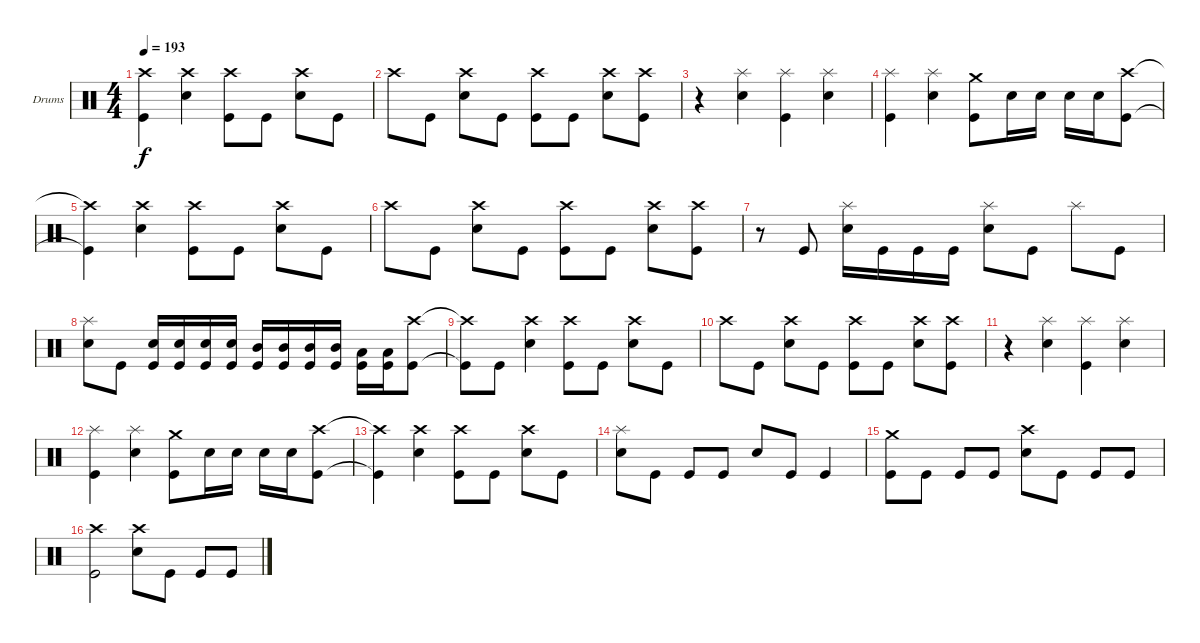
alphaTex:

\bracketExtendMode groupsimilarinstruments
\firstSystemTrackNameOrientation horizontal
\otherSystemsTrackNameOrientation horizontal
\track ("Drumkit" "Drums") {instrument percussion}
\staff {score}
\articulation defaults
\ts (4 4)
\tempo 193
\clef neutral
\ks c
("Crash high (hit)" "Kick (hit)").4{dy f} ("Crash high (hit)" "Snare (hit) 2").4 ("Crash high (hit)" "Kick (hit)").8 "Kick (hit)".8 ("Crash high (hit)" "Snare (hit) 2").8 "Kick (hit)".8 |
"Crash high (hit)".8 "Kick (hit)".8 ("Crash high (hit)" "Snare (hit) 2").8 "Kick (hit)".8 ("Crash high (hit)" "Kick (hit)").8 "Kick (hit)".8 ("Crash high (hit)" "Snare (hit) 2").8 ("Crash high (hit)" "Kick (hit)").8 |
r.4 ("Splash (hit)" "Snare (hit) 2").4 ("Splash (hit)" "Kick (hit)").4 ("Splash (hit)" "Snare (hit) 2").4 |
("Splash (hit)" "Kick (hit)").4 ("Splash (hit)" "Snare (hit) 2").4 ("Crash medium (hit)" "Kick (hit)").8 "Snare (hit) 2".16 "Snare (hit) 2".16 "Snare (hit) 2".16 "Snare (hit) 2".16 ("Crash high (hit)" "Kick (hit)").8 |
("Crash high (hit)"{t} "Kick (hit)"{t}).4 ("Crash high (hit)" "Snare (hit) 2").4 ("Crash high (hit)" "Kick (hit)").8 "Kick (hit)".8 ("Crash high (hit)" "Snare (hit) 2").8 "Kick (hit)".8 |
"Crash high (hit)".8 "Kick (hit)".8 ("Crash high (hit)" "Snare (hit) 2").8 "Kick (hit)".8 ("Crash high (hit)" "Kick (hit)").8 "Kick (hit)".8 ("Crash high (hit)" "Snare (hit) 2").8 ("Crash high (hit)" "Kick (hit)").8 |
r.8 "Kick (hit)".8 ("Splash (hit)" "Snare (hit) 2").16 "Kick (hit)".16 "Kick (hit)".16 "Kick (hit)".16 ("Splash (hit)" "Snare (hit) 2").8 "Kick (hit)".8 "Splash (hit)".8 "Kick (hit)".8 |
("Splash (hit)" "Snare (hit) 2").8 "Kick (hit)".8 ("Snare (hit) 2" "Kick (hit)").16 ("Snare (hit) 2" "Kick (hit)").16 ("Snare (hit) 2" "Kick (hit)").16 ("Snare (hit) 2" "Kick (hit)").16 ("Mid Tom (hit)" "Kick (hit)").16 ("Mid Tom (hit)" "Kick (hit)").16 ("Mid Tom (hit)" "Kick (hit)").16 ("Mid Tom (hit)" "Kick (hit)").16 ("Low Tom (hit)" "Kick (hit)").16 ("Low Tom (hit)" "Kick (hit)").16 ("Crash high (hit)" "Kick (hit)").8 |
("Crash high (hit)"{t} "Kick (hit)"{t}).8 "Kick (hit)".8 ("Crash high (hit)" "Snare (hit) 2").4 ("Crash high (hit)" "Kick (hit)").8 "Kick (hit)".8 ("Crash high (hit)" "Snare (hit) 2").8 "Kick (hit)".8 |
"Crash high (hit)".8 "Kick (hit)".8 ("Crash high (hit)" "Snare (hit) 2").8 "Kick (hit)".8 ("Crash high (hit)" "Kick (hit)").8 "Kick (hit)".8 ("Crash high (hit)" "Snare (hit) 2").8 ("Crash high (hit)" "Kick (hit)").8 |
r.4 ("Splash (hit)" "Snare (hit) 2").4 ("Splash (hit)" "Kick (hit)").4 ("Splash (hit)" "Snare (hit) 2").4 |
("Splash (hit)" "Kick (hit)").4 ("Splash (hit)" "Snare (hit) 2").4 ("Crash medium (hit)" "Kick (hit)").8 "Snare (hit) 2".16 "Snare (hit) 2".16 "Snare (hit) 2".16 "Snare (hit) 2".16 ("Crash high (hit)" "Kick (hit)").8 |
("Crash high (hit)"{t} "Kick (hit)"{t}).4 ("Crash high (hit)" "Snare (hit) 2").4 ("Crash high (hit)" "Kick (hit)").8 "Kick (hit)".8 ("Crash high (hit)" "Snare (hit) 2").8 "Kick (hit)".8 |
("Splash (hit)" "Snare (hit) 2").8 "Kick (hit)".8 "Kick (hit)".8 "Kick (hit)".8 "Snare (hit) 2".8 "Kick (hit)".8 "Kick (hit)".4 |
("Crash medium (hit)" "Kick (hit)").8 "Kick (hit)".8 "Kick (hit)".8 "Kick (hit)".8 ("Crash high (hit)" "Snare (hit) 2").8 "Kick (hit)".8 "Kick (hit)".8 "Kick (hit)".8 |
("Crash high (hit)" "Kick (hit)").2 ("Crash high (hit)" "Snare (hit) 2").8 "Kick (hit)".8 "Kick (hit)".8 "Kick (hit)".8
